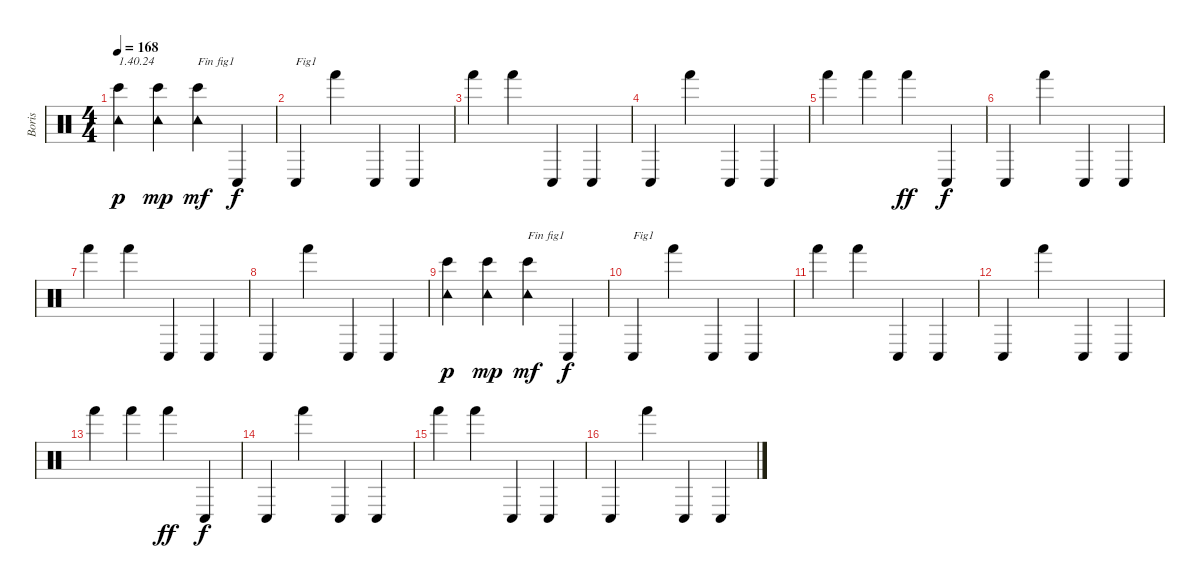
\track ("Boris" "Boris") {instrument percussion}
\staff {score}
\articulation defaults
\ts (4 4)
\tempo 168
\clef neutral
\ks c
("Tambourine (hit)" "Bongo High (hit)").4{txt "1.40.24" dy p} ("Tambourine (hit)" "Bongo High (hit)").4{dy mp} ("Tambourine (hit)" "Bongo High (hit)").4{txt "Fin fig1" dy mf} "Conga low (hit)".4{dy f} |
"Conga low (hit)".4{txt "Fig1"} "Hand (hit)".4 "Conga low (hit)".4 "Conga low (hit)".4 |
"Hand (hit)".4 "Hand (hit)".4 "Conga low (hit)".4 "Conga low (hit)".4 |
"Conga low (hit)".4 "Hand (hit)".4 "Conga low (hit)".4 "Conga low (hit)".4 |
"Hand (hit)".4 "Hand (hit)".4 "Hand (hit)".4{dy ff} "Conga low (hit)".4{dy f} |
"Conga low (hit)".4 "Hand (hit)".4 "Conga low (hit)".4 "Conga low (hit)".4 |
"Hand (hit)".4 "Hand (hit)".4 "Conga low (hit)".4 "Conga low (hit)".4 |
"Conga low (hit)".4 "Hand (hit)".4 "Conga low (hit)".4 "Conga low (hit)".4 |
("Tambourine (hit)" "Bongo High (hit)").4{dy p} ("Tambourine (hit)" "Bongo High (hit)").4{dy mp} ("Tambourine (hit)" "Bongo High (hit)").4{txt "Fin fig1" dy mf} "Conga low (hit)".4{dy f} |
"Conga low (hit)".4{txt "Fig1"} "Hand (hit)".4 "Conga low (hit)".4 "Conga low (hit)".4 |
"Hand (hit)".4 "Hand (hit)".4 "Conga low (hit)".4 "Conga low (hit)".4 |
"Conga low (hit)".4 "Hand (hit)".4 "Conga low (hit)".4 "Conga low (hit)".4 |
"Hand (hit)".4 "Hand (hit)".4 "Hand (hit)".4{dy ff} "Conga low (hit)".4{dy f} |
"Conga low (hit)".4 "Hand (hit)".4 "Conga low (hit)".4 "Conga low (hit)".4 |
"Hand (hit)".4 "Hand (hit)".4 "Conga low (hit)".4 "Conga low (hit)".4 |
"Conga low (hit)".4 "Hand (hit)".4 "Conga low (hit)".4 "Conga low (hit)".4
